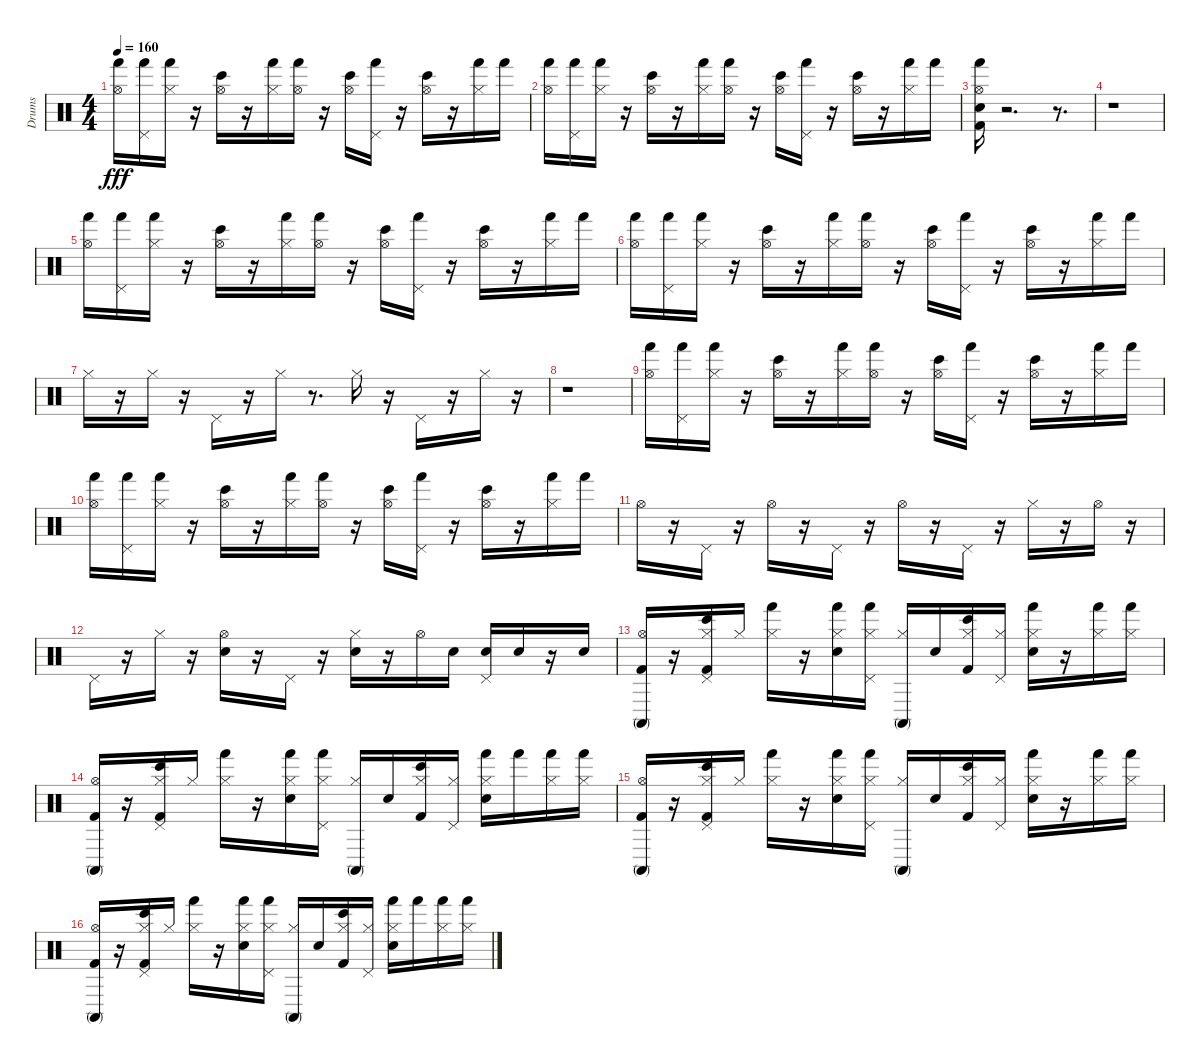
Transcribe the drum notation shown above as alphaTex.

\track ("Drums" "Drums") {instrument percussion}
\staff {score}
\articulation defaults
\ts (4 4)
\tempo 160
\clef neutral
\ks c
("Hand (hit)" "Hi-Hat (open)").16{dy fff} ("Pedal Hi-Hat (hit)" "Hand (hit)").16 ("Hand (hit)" "Hi-Hat (closed)").16 r.16 ("Hi-Hat (open)" "Bongo High (hit)").16 r.16 ("Hand (hit)" "Hi-Hat (closed)").16 ("Hand (hit)" "Hi-Hat (open)").16 r.16 ("Hi-Hat (open)" "Bongo High (hit)").16 ("Hand (hit)" "Pedal Hi-Hat (hit)").16 r.16 ("Bongo High (hit)" "Hi-Hat (open)").16 r.16 ("Hi-Hat (closed)" "Hand (hit)").16 "Hand (hit)".16 |
("Hi-Hat (open)" "Hand (hit)").16 ("Pedal Hi-Hat (hit)" "Hand (hit)").16 ("Hand (hit)" "Hi-Hat (closed)").16 r.16 ("Bongo High (hit)" "Hi-Hat (open)").16 r.16 ("Hi-Hat (closed)" "Hand (hit)").16 ("Hi-Hat (open)" "Hand (hit)").16 r.16 ("Hi-Hat (open)" "Bongo High (hit)").16 ("Pedal Hi-Hat (hit)" "Hand (hit)").16 r.16 ("Bongo High (hit)" "Hi-Hat (open)").16 r.16 ("Hand (hit)" "Hi-Hat (closed)").16 "Hand (hit)".16 |
("Hand (hit)" "Kick (hit) 2" "Hi-Hat (open)" "Electric Snare (hit)").16 r.2{d} r.8{d} |
r.1 |
("Hand (hit)" "Hi-Hat (open)").16 ("Hand (hit)" "Pedal Hi-Hat (hit)").16 ("Hi-Hat (closed)" "Hand (hit)").16 r.16 ("Hi-Hat (open)" "Bongo High (hit)").16 r.16 ("Hand (hit)" "Hi-Hat (closed)").16 ("Hand (hit)" "Hi-Hat (open)").16 r.16 ("Hi-Hat (open)" "Bongo High (hit)").16 ("Hand (hit)" "Pedal Hi-Hat (hit)").16 r.16 ("Hi-Hat (open)" "Bongo High (hit)").16 r.16 ("Hand (hit)" "Hi-Hat (closed)").16 "Hand (hit)".16 |
("Hi-Hat (open)" "Hand (hit)").16 ("Hand (hit)" "Pedal Hi-Hat (hit)").16 ("Hand (hit)" "Hi-Hat (closed)").16 r.16 ("Bongo High (hit)" "Hi-Hat (open)").16 r.16 ("Hand (hit)" "Hi-Hat (closed)").16 ("Hand (hit)" "Hi-Hat (open)").16 r.16 ("Bongo High (hit)" "Hi-Hat (open)").16 ("Hand (hit)" "Pedal Hi-Hat (hit)").16 r.16 ("Hi-Hat (open)" "Bongo High (hit)").16 r.16 ("Hand (hit)" "Hi-Hat (closed)").16 "Hand (hit)".16 |
"Hi-Hat (closed)".16 r.16 "Hi-Hat (closed)".16 r.16 "Pedal Hi-Hat (hit)".16 r.16 "Hi-Hat (closed)".16 r.8{d} "Hi-Hat (closed)".16 r.16 "Pedal Hi-Hat (hit)".16 r.16 "Hi-Hat (closed)".16 r.16 |
r.1 |
("Hi-Hat (open)" "Hand (hit)").16 ("Pedal Hi-Hat (hit)" "Hand (hit)").16 ("Hand (hit)" "Hi-Hat (closed)").16 r.16 ("Hi-Hat (open)" "Bongo High (hit)").16 r.16 ("Hand (hit)" "Hi-Hat (closed)").16 ("Hi-Hat (open)" "Hand (hit)").16 r.16 ("Hi-Hat (open)" "Bongo High (hit)").16 ("Hand (hit)" "Pedal Hi-Hat (hit)").16 r.16 ("Hi-Hat (open)" "Bongo High (hit)").16 r.16 ("Hi-Hat (closed)" "Hand (hit)").16 "Hand (hit)".16 |
("Hand (hit)" "Hi-Hat (open)").16 ("Pedal Hi-Hat (hit)" "Hand (hit)").16 ("Hand (hit)" "Hi-Hat (closed)").16 r.16 ("Hi-Hat (open)" "Bongo High (hit)").16 r.16 ("Hi-Hat (closed)" "Hand (hit)").16 ("Hi-Hat (open)" "Hand (hit)").16 r.16 ("Hi-Hat (open)" "Bongo High (hit)").16 ("Pedal Hi-Hat (hit)" "Hand (hit)").16 r.16 ("Bongo High (hit)" "Hi-Hat (open)").16 r.16 ("Hand (hit)" "Hi-Hat (closed)").16 "Hand (hit)".16 |
"Hi-Hat (open)".16 r.16 "Pedal Hi-Hat (hit)".16 r.16 "Hi-Hat (open)".16 r.16 "Pedal Hi-Hat (hit)".16 r.16 "Hi-Hat (open)".16 r.16 "Pedal Hi-Hat (hit)".16 r.16 "Hi-Hat (closed)".16 r.16 "Hi-Hat (open)".16 r.16 |
"Pedal Hi-Hat (hit)".16 r.16 "Hi-Hat (closed)".16 r.16 ("Electric Snare (hit)" "Hi-Hat (open)").16 r.16 "Pedal Hi-Hat (hit)".16 r.16 ("Hi-Hat (closed)" "Electric Snare (hit)").16 r.16 "Hi-Hat (open)".16 "Electric Snare (hit)".16 ("Pedal Hi-Hat (hit)" "Electric Snare (hit)").16 "Electric Snare (hit)".16 r.16 "Electric Snare (hit)".16 |
("Conga high (mute)" "Hi-Hat (open)" "Kick (hit) 2").16 r.16 ("Kick (hit) 2" "Bongo High (hit)" "Hi-Hat (closed)" "Pedal Hi-Hat (hit)").16 "Hi-Hat (closed)".16 ("Hi-Hat (closed)" "Hand (hit)").16 r.16 ("Electric Snare (hit)" "Hand (hit)" "Hi-Hat (closed)").16 ("Pedal Hi-Hat (hit)" "Hi-Hat (closed)" "Hand (hit)").16 ("Conga high (mute)" "Hi-Hat (closed)").16 "Electric Snare (hit)".16 ("Bongo High (hit)" "Kick (hit) 2" "Hi-Hat (closed)").16 ("Hi-Hat (closed)" "Pedal Hi-Hat (hit)").16 ("Hand (hit)" "Electric Snare (hit)" "Hi-Hat (closed)").16 r.16 ("Hi-Hat (closed)" "Hand (hit)").16 ("Hi-Hat (closed)" "Hand (hit)").16 |
("Kick (hit) 2" "Conga high (mute)" "Hi-Hat (open)").16 r.16 ("Bongo High (hit)" "Hi-Hat (closed)" "Kick (hit) 2" "Pedal Hi-Hat (hit)").16 "Hi-Hat (closed)".16 ("Hand (hit)" "Hi-Hat (closed)").16 r.16 ("Hand (hit)" "Hi-Hat (closed)" "Electric Snare (hit)").16 ("Pedal Hi-Hat (hit)" "Hand (hit)" "Hi-Hat (closed)").16 ("Conga high (mute)" "Hi-Hat (closed)").16 "Electric Snare (hit)".16 ("Kick (hit) 2" "Bongo High (hit)" "Hi-Hat (closed)").16 ("Hi-Hat (closed)" "Pedal Hi-Hat (hit)").16 ("Electric Snare (hit)" "Hand (hit)" "Hi-Hat (closed)").16 "Hand (hit)".16 ("Hi-Hat (closed)" "Hand (hit)").16 ("Hi-Hat (closed)" "Hand (hit)").16 |
("Hi-Hat (open)" "Kick (hit) 2" "Conga high (mute)").16 r.16 ("Bongo High (hit)" "Pedal Hi-Hat (hit)" "Hi-Hat (closed)" "Kick (hit) 2").16 "Hi-Hat (closed)".16 ("Hand (hit)" "Hi-Hat (closed)").16 r.16 ("Hand (hit)" "Hi-Hat (closed)" "Electric Snare (hit)").16 ("Hi-Hat (closed)" "Pedal Hi-Hat (hit)" "Hand (hit)").16 ("Hi-Hat (closed)" "Conga high (mute)").16 "Electric Snare (hit)".16 ("Hi-Hat (closed)" "Bongo High (hit)" "Kick (hit) 2").16 ("Hi-Hat (closed)" "Pedal Hi-Hat (hit)").16 ("Hand (hit)" "Hi-Hat (closed)" "Electric Snare (hit)").16 r.16 ("Hi-Hat (closed)" "Hand (hit)").16 ("Hi-Hat (closed)" "Hand (hit)").16 |
("Conga high (mute)" "Hi-Hat (open)" "Kick (hit) 2").16 r.16 ("Hi-Hat (closed)" "Pedal Hi-Hat (hit)" "Bongo High (hit)" "Kick (hit) 2").16 "Hi-Hat (closed)".16 ("Hand (hit)" "Hi-Hat (closed)").16 r.16 ("Hand (hit)" "Electric Snare (hit)" "Hi-Hat (closed)").16 ("Pedal Hi-Hat (hit)" "Hi-Hat (closed)" "Hand (hit)").16 ("Hi-Hat (closed)" "Conga high (mute)").16 "Electric Snare (hit)".16 ("Hi-Hat (closed)" "Kick (hit) 2" "Bongo High (hit)").16 ("Hi-Hat (closed)" "Pedal Hi-Hat (hit)").16 ("Electric Snare (hit)" "Hand (hit)" "Hi-Hat (closed)").16 "Hand (hit)".16 ("Hi-Hat (closed)" "Hand (hit)").16 ("Hand (hit)" "Hi-Hat (closed)").16
